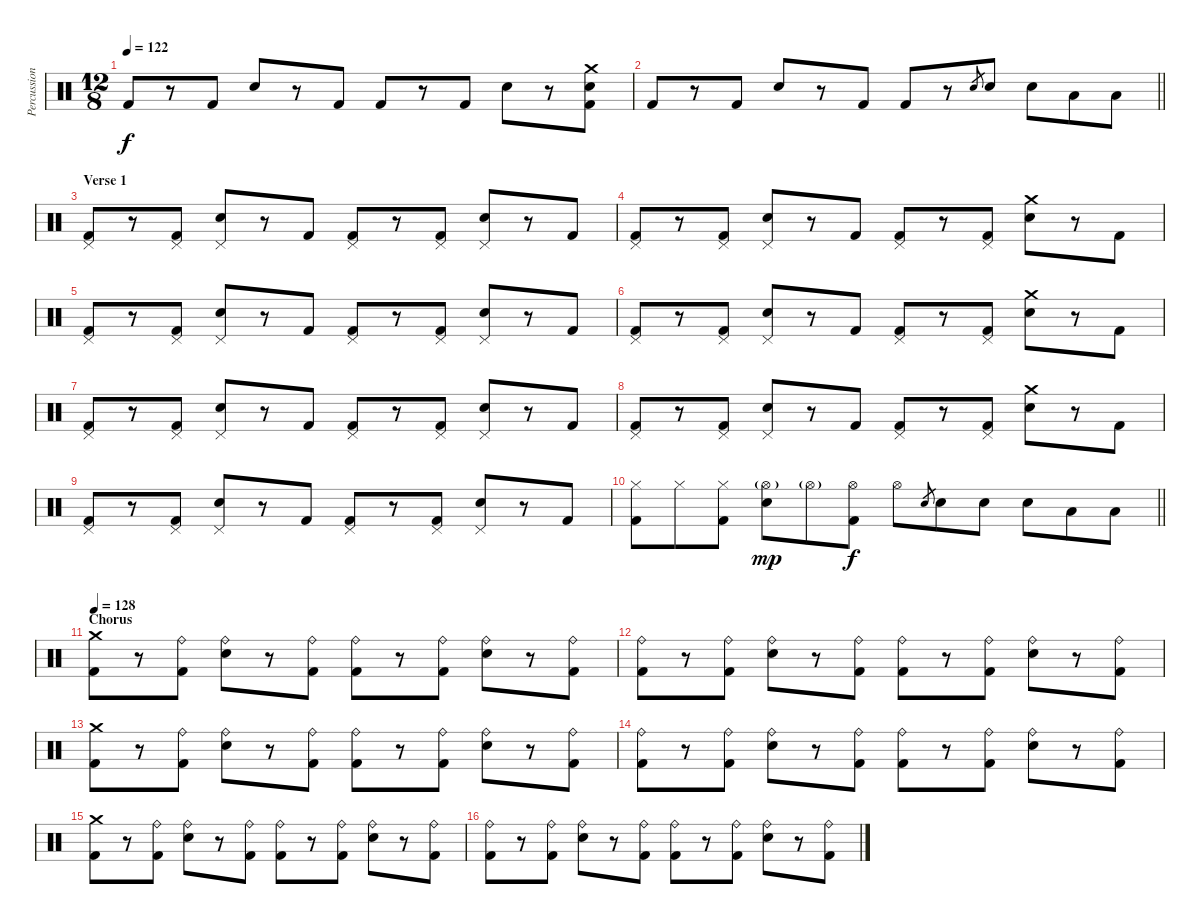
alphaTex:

\track ("Percussion" "Percussion") {instrument percussion}
\staff {score}
\articulation defaults
\ts (12 8)
\tempo 122
\clef neutral
\ks c "Kick (hit) 2".8{dy f}
r.8 "Kick (hit) 2".8 "Snare (hit) 2".8 r.8 "Kick (hit) 2".8 "Kick (hit) 2".8 r.8 "Kick (hit) 2".8 "Snare (hit) 2".8 r.8 ("Crash medium (hit)" "Snare (hit) 2" "Kick (hit) 2").8 |
\barLineRight lightlight "Kick (hit) 2".8
r.8 "Kick (hit) 2".8 "Snare (hit) 2".8 r.8 "Kick (hit) 2".8 "Kick (hit) 2".8 r.8 "Snare (hit) 2".8{gr} "Snare (hit) 2".8 "Snare (hit) 2".8 "Low Tom (hit)".8 "Low Floor Tom (hit)".8 |
\section ("" "Verse 1")
("Pedal Hi-Hat (hit)" "Kick (hit) 2").8 r.8 ("Pedal Hi-Hat (hit)" "Kick (hit) 2").8 ("Pedal Hi-Hat (hit)" "Snare (hit) 2").8 r.8 "Kick (hit) 2".8 ("Pedal Hi-Hat (hit)" "Kick (hit) 2").8 r.8 ("Pedal Hi-Hat (hit)" "Kick (hit) 2").8 ("Pedal Hi-Hat (hit)" "Snare (hit) 2").8 r.8 "Kick (hit) 2".8 |
("Pedal Hi-Hat (hit)" "Kick (hit) 2").8 r.8 ("Pedal Hi-Hat (hit)" "Kick (hit) 2").8 ("Pedal Hi-Hat (hit)" "Snare (hit) 2").8 r.8 "Kick (hit) 2".8 ("Pedal Hi-Hat (hit)" "Kick (hit) 2").8 r.8 ("Pedal Hi-Hat (hit)" "Kick (hit) 2").8 ("Crash medium (hit)" "Snare (hit) 2").8 r.8 "Kick (hit) 2".8 |
("Pedal Hi-Hat (hit)" "Kick (hit) 2").8 r.8 ("Pedal Hi-Hat (hit)" "Kick (hit) 2").8 ("Pedal Hi-Hat (hit)" "Snare (hit) 2").8 r.8 "Kick (hit) 2".8 ("Pedal Hi-Hat (hit)" "Kick (hit) 2").8 r.8 ("Pedal Hi-Hat (hit)" "Kick (hit) 2").8 ("Pedal Hi-Hat (hit)" "Snare (hit) 2").8 r.8 "Kick (hit) 2".8 |
("Pedal Hi-Hat (hit)" "Kick (hit) 2").8 r.8 ("Pedal Hi-Hat (hit)" "Kick (hit) 2").8 ("Pedal Hi-Hat (hit)" "Snare (hit) 2").8 r.8 "Kick (hit) 2".8 ("Pedal Hi-Hat (hit)" "Kick (hit) 2").8 r.8 ("Pedal Hi-Hat (hit)" "Kick (hit) 2").8 ("Crash medium (hit)" "Snare (hit) 2").8 r.8 "Kick (hit) 2".8 |
("Pedal Hi-Hat (hit)" "Kick (hit) 2").8 r.8 ("Pedal Hi-Hat (hit)" "Kick (hit) 2").8 ("Pedal Hi-Hat (hit)" "Snare (hit) 2").8 r.8 "Kick (hit) 2".8 ("Pedal Hi-Hat (hit)" "Kick (hit) 2").8 r.8 ("Pedal Hi-Hat (hit)" "Kick (hit) 2").8 ("Pedal Hi-Hat (hit)" "Snare (hit) 2").8 r.8 "Kick (hit) 2".8 |
("Pedal Hi-Hat (hit)" "Kick (hit) 2").8 r.8 ("Pedal Hi-Hat (hit)" "Kick (hit) 2").8 ("Pedal Hi-Hat (hit)" "Snare (hit) 2").8 r.8 "Kick (hit) 2".8 ("Pedal Hi-Hat (hit)" "Kick (hit) 2").8 r.8 ("Pedal Hi-Hat (hit)" "Kick (hit) 2").8 ("Crash medium (hit)" "Snare (hit) 2").8 r.8 "Kick (hit) 2".8 |
("Pedal Hi-Hat (hit)" "Kick (hit) 2").8 r.8 ("Pedal Hi-Hat (hit)" "Kick (hit) 2").8 ("Pedal Hi-Hat (hit)" "Snare (hit) 2").8 r.8 "Kick (hit) 2".8 ("Pedal Hi-Hat (hit)" "Kick (hit) 2").8 r.8 ("Pedal Hi-Hat (hit)" "Kick (hit) 2").8 ("Pedal Hi-Hat (hit)" "Snare (hit) 2").8 r.8 "Kick (hit) 2".8 |
\barLineRight lightlight
("Hi-Hat (closed)" "Kick (hit) 2").8 "Hi-Hat (closed)".8 ("Hi-Hat (closed)" "Kick (hit) 2").8 ("Hi-Hat (open)"{g} "Snare (hit) 2").8{dy mp} "Hi-Hat (open)"{g}.8 ("Hi-Hat (open)" "Kick (hit) 2").8{dy f} "Hi-Hat (open)".8 "Snare (hit) 2".8{gr} "Snare (hit) 2".8 "Snare (hit) 2".8 "Snare (hit) 2".8 "Low Tom (hit)".8 "Low Floor Tom (hit)".8 |
\section ("" "Chorus")
\tempo 128
("Crash medium (hit)" "Kick (hit) 2").8 r.8 ("Ride (bell)" "Kick (hit) 2").8 ("Ride (bell)" "Snare (hit) 2").8 r.8 ("Ride (bell)" "Kick (hit) 2").8 ("Ride (bell)" "Kick (hit) 2").8 r.8 ("Ride (bell)" "Kick (hit) 2").8 ("Ride (bell)" "Snare (hit) 2").8 r.8 ("Ride (bell)" "Kick (hit) 2").8 |
("Ride (bell)" "Kick (hit) 2").8 r.8 ("Ride (bell)" "Kick (hit) 2").8 ("Ride (bell)" "Snare (hit) 2").8 r.8 ("Ride (bell)" "Kick (hit) 2").8 ("Ride (bell)" "Kick (hit) 2").8 r.8 ("Ride (bell)" "Kick (hit) 2").8 ("Ride (bell)" "Snare (hit) 2").8 r.8 ("Ride (bell)" "Kick (hit) 2").8 |
("Crash medium (hit)" "Kick (hit) 2").8 r.8 ("Ride (bell)" "Kick (hit) 2").8 ("Ride (bell)" "Snare (hit) 2").8 r.8 ("Ride (bell)" "Kick (hit) 2").8 ("Ride (bell)" "Kick (hit) 2").8 r.8 ("Ride (bell)" "Kick (hit) 2").8 ("Ride (bell)" "Snare (hit) 2").8 r.8 ("Ride (bell)" "Kick (hit) 2").8 |
("Ride (bell)" "Kick (hit) 2").8 r.8 ("Ride (bell)" "Kick (hit) 2").8 ("Ride (bell)" "Snare (hit) 2").8 r.8 ("Ride (bell)" "Kick (hit) 2").8 ("Ride (bell)" "Kick (hit) 2").8 r.8 ("Ride (bell)" "Kick (hit) 2").8 ("Ride (bell)" "Snare (hit) 2").8 r.8 ("Ride (bell)" "Kick (hit) 2").8 |
("Crash medium (hit)" "Kick (hit) 2").8 r.8 ("Ride (bell)" "Kick (hit) 2").8 ("Ride (bell)" "Snare (hit) 2").8 r.8 ("Ride (bell)" "Kick (hit) 2").8 ("Ride (bell)" "Kick (hit) 2").8 r.8 ("Ride (bell)" "Kick (hit) 2").8 ("Ride (bell)" "Snare (hit) 2").8 r.8 ("Ride (bell)" "Kick (hit) 2").8 |
("Ride (bell)" "Kick (hit) 2").8 r.8 ("Ride (bell)" "Kick (hit) 2").8 ("Ride (bell)" "Snare (hit) 2").8 r.8 ("Ride (bell)" "Kick (hit) 2").8 ("Ride (bell)" "Kick (hit) 2").8 r.8 ("Ride (bell)" "Kick (hit) 2").8 ("Ride (bell)" "Snare (hit) 2").8 r.8 ("Ride (bell)" "Kick (hit) 2").8
